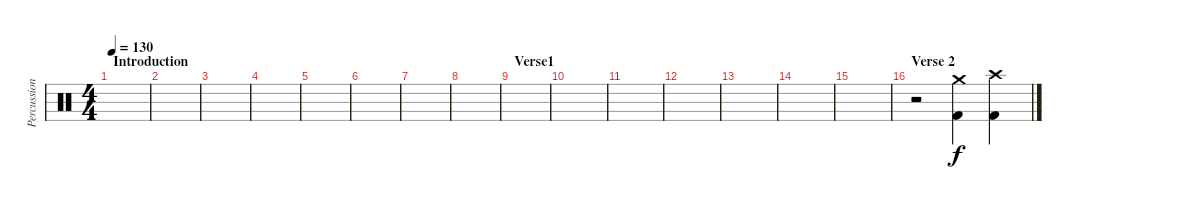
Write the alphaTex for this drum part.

\track ("Percussion" "Percussion") {instrument percussion}
\staff {score}
\articulation defaults
\ts (4 4)
\section ("" "Introduction")
\tempo 130
\clef neutral
\ks c
|
|
|
|
|
|
|
|
\section ("" "Verse1")
|
|
|
|
|
|
|
\section ("" "Verse 2")
r.2 ("Crash medium (hit)" "Kick (hit) 2").4 ("Crash high (hit)" "Kick (hit) 2").4
